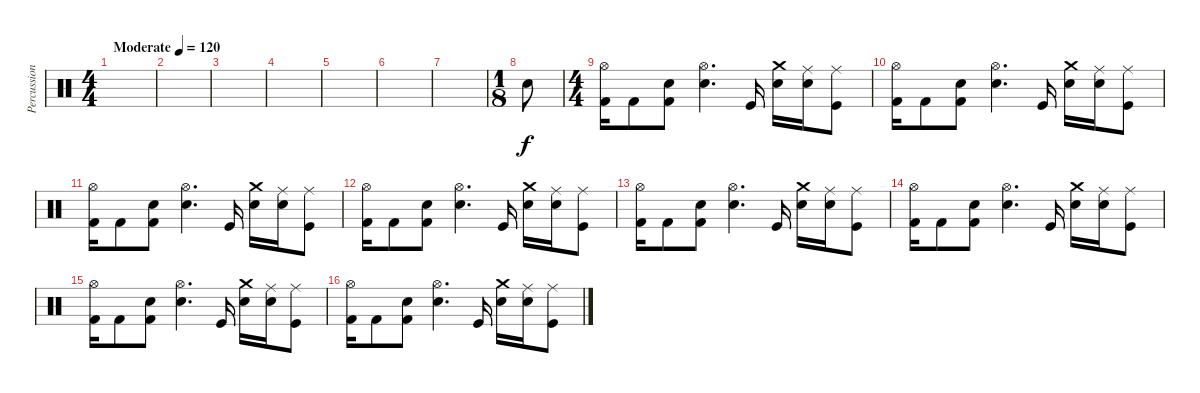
\track ("Percussion" "Percussion") {instrument percussion}
\staff {score}
\articulation defaults
\ts (4 4)
\tempo (120 "Moderate")
\clef neutral
\ks c
|
|
|
|
|
|
|
\ts (1 8)
"Snare (hit) 2".8 |
\ts (4 4)
("Hi-Hat (open)" "Kick (hit) 2").16 "Kick (hit) 2".8 ("Snare (hit) 2" "Kick (hit) 2").8 ("Hi-Hat (open)" "Snare (hit) 2").4{d} "Kick (hit)".16 ("Crash medium (hit)" "Snare (hit) 2").16 ("Ride (middle)" "Snare (hit) 2").16 ("Ride (middle)" "Kick (hit)").8 |
("Hi-Hat (open)" "Kick (hit) 2").16 "Kick (hit) 2".8 ("Snare (hit) 2" "Kick (hit) 2").8 ("Hi-Hat (open)" "Snare (hit) 2").4{d} "Kick (hit)".16 ("Crash medium (hit)" "Snare (hit) 2").16 ("Ride (middle)" "Snare (hit) 2").16 ("Ride (middle)" "Kick (hit)").8 |
("Hi-Hat (open)" "Kick (hit) 2").16 "Kick (hit) 2".8 ("Snare (hit) 2" "Kick (hit) 2").8 ("Hi-Hat (open)" "Snare (hit) 2").4{d} "Kick (hit)".16 ("Crash medium (hit)" "Snare (hit) 2").16 ("Ride (middle)" "Snare (hit) 2").16 ("Ride (middle)" "Kick (hit)").8 |
("Hi-Hat (open)" "Kick (hit) 2").16 "Kick (hit) 2".8 ("Snare (hit) 2" "Kick (hit) 2").8 ("Hi-Hat (open)" "Snare (hit) 2").4{d} "Kick (hit)".16 ("Crash medium (hit)" "Snare (hit) 2").16 ("Ride (middle)" "Snare (hit) 2").16 ("Ride (middle)" "Kick (hit)").8 |
("Hi-Hat (open)" "Kick (hit) 2").16 "Kick (hit) 2".8 ("Snare (hit) 2" "Kick (hit) 2").8 ("Hi-Hat (open)" "Snare (hit) 2").4{d} "Kick (hit)".16 ("Crash medium (hit)" "Snare (hit) 2").16 ("Ride (middle)" "Snare (hit) 2").16 ("Ride (middle)" "Kick (hit)").8 |
("Hi-Hat (open)" "Kick (hit) 2").16 "Kick (hit) 2".8 ("Snare (hit) 2" "Kick (hit) 2").8 ("Hi-Hat (open)" "Snare (hit) 2").4{d} "Kick (hit)".16 ("Crash medium (hit)" "Snare (hit) 2").16 ("Ride (middle)" "Snare (hit) 2").16 ("Ride (middle)" "Kick (hit)").8 |
("Hi-Hat (open)" "Kick (hit) 2").16 "Kick (hit) 2".8 ("Snare (hit) 2" "Kick (hit) 2").8 ("Hi-Hat (open)" "Snare (hit) 2").4{d} "Kick (hit)".16 ("Crash medium (hit)" "Snare (hit) 2").16 ("Ride (middle)" "Snare (hit) 2").16 ("Ride (middle)" "Kick (hit)").8 |
("Hi-Hat (open)" "Kick (hit) 2").16 "Kick (hit) 2".8 ("Snare (hit) 2" "Kick (hit) 2").8 ("Hi-Hat (open)" "Snare (hit) 2").4{d} "Kick (hit)".16 ("Crash medium (hit)" "Snare (hit) 2").16 ("Ride (middle)" "Snare (hit) 2").16 ("Ride (middle)" "Kick (hit)").8
